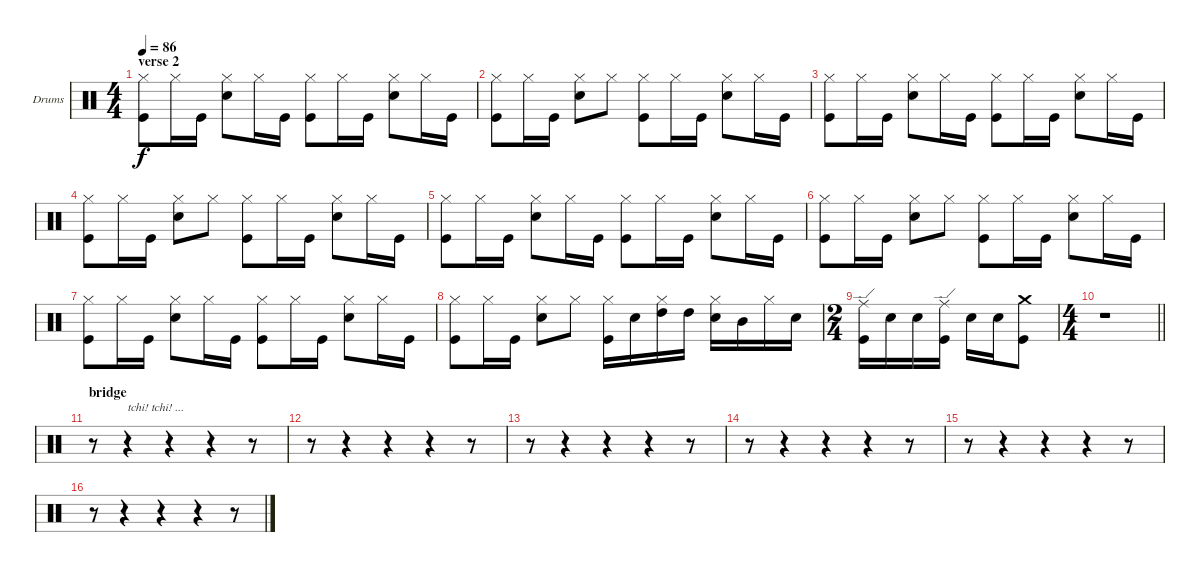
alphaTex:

\bracketExtendMode groupsimilarinstruments
\firstSystemTrackNameOrientation horizontal
\otherSystemsTrackNameOrientation horizontal
\track ("Drumkit" "Drums") {instrument percussion}
\staff {score}
\articulation defaults
\ts (4 4)
\section ("" "verse 2")
\tempo 86
\clef neutral
\ks c
("Hi-Hat (closed)" "Kick (hit)").8{dy f} "Hi-Hat (closed)".16 "Kick (hit)".16 ("Hi-Hat (closed)" "Snare (hit) 2").8 "Hi-Hat (closed)".16 "Kick (hit)".16 ("Hi-Hat (closed)" "Kick (hit)").8 "Hi-Hat (closed)".16 "Kick (hit)".16 ("Hi-Hat (closed)" "Snare (hit) 2").8 "Hi-Hat (closed)".16 "Kick (hit)".16 |
("Hi-Hat (closed)" "Kick (hit)").8 "Hi-Hat (closed)".16 "Kick (hit)".16 ("Hi-Hat (closed)" "Snare (hit) 2").8 "Hi-Hat (closed)".8 ("Hi-Hat (closed)" "Kick (hit)").8 "Hi-Hat (closed)".16 "Kick (hit)".16 ("Hi-Hat (closed)" "Snare (hit) 2").8 "Hi-Hat (closed)".16 "Kick (hit)".16 |
("Hi-Hat (closed)" "Kick (hit)").8 "Hi-Hat (closed)".16 "Kick (hit)".16 ("Hi-Hat (closed)" "Snare (hit) 2").8 "Hi-Hat (closed)".16 "Kick (hit)".16 ("Hi-Hat (closed)" "Kick (hit)").8 "Hi-Hat (closed)".16 "Kick (hit)".16 ("Hi-Hat (closed)" "Snare (hit) 2").8 "Hi-Hat (closed)".16 "Kick (hit)".16 |
("Hi-Hat (closed)" "Kick (hit)").8 "Hi-Hat (closed)".16 "Kick (hit)".16 ("Hi-Hat (closed)" "Snare (hit) 2").8 "Hi-Hat (closed)".8 ("Hi-Hat (closed)" "Kick (hit)").8 "Hi-Hat (closed)".16 "Kick (hit)".16 ("Hi-Hat (closed)" "Snare (hit) 2").8 "Hi-Hat (closed)".16 "Kick (hit)".16 |
("Hi-Hat (closed)" "Kick (hit)").8 "Hi-Hat (closed)".16 "Kick (hit)".16 ("Hi-Hat (closed)" "Snare (hit) 2").8 "Hi-Hat (closed)".16 "Kick (hit)".16 ("Hi-Hat (closed)" "Kick (hit)").8 "Hi-Hat (closed)".16 "Kick (hit)".16 ("Hi-Hat (closed)" "Snare (hit) 2").8 "Hi-Hat (closed)".16 "Kick (hit)".16 |
("Hi-Hat (closed)" "Kick (hit)").8 "Hi-Hat (closed)".16 "Kick (hit)".16 ("Hi-Hat (closed)" "Snare (hit) 2").8 "Hi-Hat (closed)".8 ("Hi-Hat (closed)" "Kick (hit)").8 "Hi-Hat (closed)".16 "Kick (hit)".16 ("Hi-Hat (closed)" "Snare (hit) 2").8 "Hi-Hat (closed)".16 "Kick (hit)".16 |
("Hi-Hat (closed)" "Kick (hit)").8 "Hi-Hat (closed)".16 "Kick (hit)".16 ("Hi-Hat (closed)" "Snare (hit) 2").8 "Hi-Hat (closed)".16 "Kick (hit)".16 ("Hi-Hat (closed)" "Kick (hit)").8 "Hi-Hat (closed)".16 "Kick (hit)".16 ("Hi-Hat (closed)" "Snare (hit) 2").8 "Hi-Hat (closed)".16 "Kick (hit)".16 |
("Hi-Hat (closed)" "Kick (hit)").8 "Hi-Hat (closed)".16 "Kick (hit)".16 ("Hi-Hat (closed)" "Snare (hit) 2").8 "Hi-Hat (closed)".8 ("Hi-Hat (closed)" "Kick (hit)").16 "Snare (hit) 2".16 ("Hi-Hat (closed)" "High Tom (hit)").16 "High Tom (hit)".16 ("Hi-Hat (closed)" "Snare (hit) 2").16 "Mid Tom (hit)".16 "Hi-Hat (closed)".16 "Snare (hit) 2".16 |
\ts (2 4)
("Ride (edge)" "Kick (hit)").16 "Snare (hit) 2".16 "Snare (hit) 2".16 ("Ride (edge)" "Kick (hit)").16 "Snare (hit) 2".16 "Snare (hit) 2".16 ("Crash medium (hit)" "Kick (hit)").8 |
\ts (4 4)
\barLineRight lightlight
r.1 |
\section ("" "bridge")
r.8 r.4{txt "tchi! tchi! ..."} r.4 r.4 r.8 |
r.8 r.4 r.4 r.4 r.8 |
r.8 r.4 r.4 r.4 r.8 |
r.8 r.4 r.4 r.4 r.8 |
r.8 r.4 r.4 r.4 r.8 |
r.8 r.4 r.4 r.4 r.8
